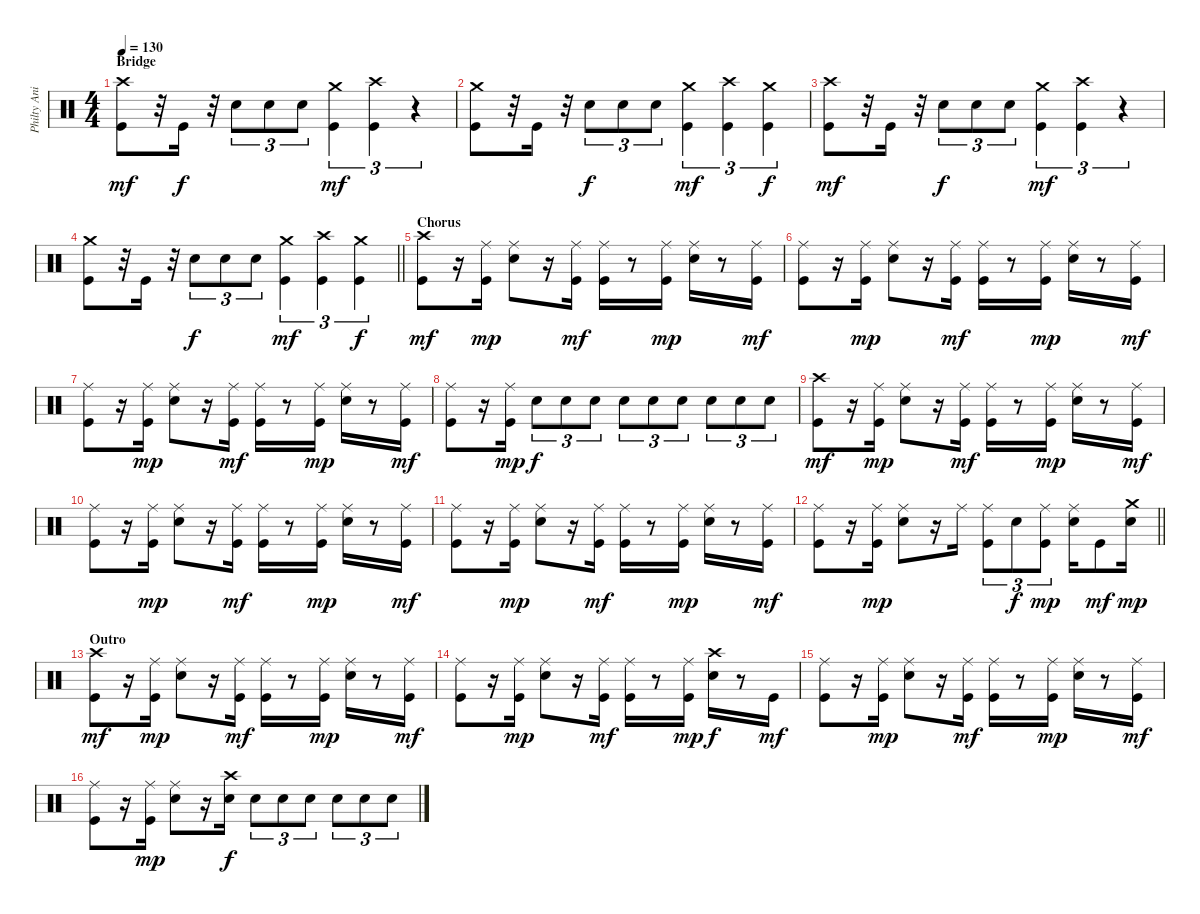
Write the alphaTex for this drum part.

\track ("Philty Animal Taylor" "Philty Ani") {instrument percussion}
\staff {score}
\articulation defaults
\ts (4 4)
\section ("" "Bridge")
\tempo 130
\clef neutral
\ks c
("Crash high (hit)" "Kick (hit)").8{dy mf} r.32 "Kick (hit)".16{dy f} r.32 "Snare (hit) 2".8{tu (3 2)} "Snare (hit) 2".8{tu (3 2)} "Snare (hit) 2".8{tu (3 2)} ("Crash medium (hit)" "Kick (hit)").4{tu (3 2) dy mf} ("Crash high (hit)" "Kick (hit)").4{tu (3 2)} r.4{tu (3 2)} |
("Crash medium (hit)" "Kick (hit)").8 r.32 "Kick (hit)".16 r.32 "Snare (hit) 2".8{tu (3 2) dy f} "Snare (hit) 2".8{tu (3 2)} "Snare (hit) 2".8{tu (3 2)} ("Crash medium (hit)" "Kick (hit)").4{tu (3 2) dy mf} ("Crash high (hit)" "Kick (hit)").4{tu (3 2)} ("Crash medium (hit)" "Kick (hit)").4{tu (3 2) dy f} |
("Crash high (hit)" "Kick (hit)").8{dy mf} r.32 "Kick (hit)".16 r.32 "Snare (hit) 2".8{tu (3 2) dy f} "Snare (hit) 2".8{tu (3 2)} "Snare (hit) 2".8{tu (3 2)} ("Crash medium (hit)" "Kick (hit)").4{tu (3 2) dy mf} ("Crash high (hit)" "Kick (hit)").4{tu (3 2)} r.4{tu (3 2)} |
\barLineRight lightlight
("Crash medium (hit)" "Kick (hit)").8 r.32 "Kick (hit)".16 r.32 "Snare (hit) 2".8{tu (3 2) dy f} "Snare (hit) 2".8{tu (3 2)} "Snare (hit) 2".8{tu (3 2)} ("Crash medium (hit)" "Kick (hit)").4{tu (3 2) dy mf} ("Crash high (hit)" "Kick (hit)").4{tu (3 2)} ("Crash medium (hit)" "Kick (hit)").4{tu (3 2) dy f} |
\section ("" "Chorus")
("Crash high (hit)" "Kick (hit)").8{dy mf} r.16 ("Ride (middle)" "Kick (hit)").16{dy mp} ("Ride (middle)" "Snare (hit) 2").8 r.16 ("Ride (middle)" "Kick (hit)").16{dy mf} ("Ride (middle)" "Kick (hit)").16 r.8 ("Ride (middle)" "Kick (hit)").16{dy mp} ("Ride (middle)" "Snare (hit) 2").16 r.8 ("Ride (middle)" "Kick (hit)").16{dy mf} |
("Ride (middle)" "Kick (hit)").8 r.16 ("Ride (middle)" "Kick (hit)").16{dy mp} ("Ride (middle)" "Snare (hit) 2").8 r.16 ("Ride (middle)" "Kick (hit)").16{dy mf} ("Ride (middle)" "Kick (hit)").16 r.8 ("Ride (middle)" "Kick (hit)").16{dy mp} ("Ride (middle)" "Snare (hit) 2").16 r.8 ("Ride (middle)" "Kick (hit)").16{dy mf} |
("Ride (middle)" "Kick (hit)").8 r.16 ("Ride (middle)" "Kick (hit)").16{dy mp} ("Ride (middle)" "Snare (hit) 2").8 r.16 ("Ride (middle)" "Kick (hit)").16{dy mf} ("Ride (middle)" "Kick (hit)").16 r.8 ("Ride (middle)" "Kick (hit)").16{dy mp} ("Ride (middle)" "Snare (hit) 2").16 r.8 ("Ride (middle)" "Kick (hit)").16{dy mf} |
("Ride (middle)" "Kick (hit)").8 r.16 ("Ride (middle)" "Kick (hit)").16{dy mp} "Snare (hit) 2".8{tu (3 2) dy f} "Snare (hit) 2".8{tu (3 2)} "Snare (hit) 2".8{tu (3 2)} "Snare (hit) 2".8{tu (3 2)} "Snare (hit) 2".8{tu (3 2)} "Snare (hit) 2".8{tu (3 2)} "Snare (hit) 2".8{tu (3 2)} "Snare (hit) 2".8{tu (3 2)} "Snare (hit) 2".8{tu (3 2)} |
("Crash high (hit)" "Kick (hit)").8{dy mf} r.16 ("Ride (middle)" "Kick (hit)").16{dy mp} ("Ride (middle)" "Snare (hit) 2").8 r.16 ("Ride (middle)" "Kick (hit)").16{dy mf} ("Ride (middle)" "Kick (hit)").16 r.8 ("Ride (middle)" "Kick (hit)").16{dy mp} ("Ride (middle)" "Snare (hit) 2").16 r.8 ("Ride (middle)" "Kick (hit)").16{dy mf} |
("Ride (middle)" "Kick (hit)").8 r.16 ("Ride (middle)" "Kick (hit)").16{dy mp} ("Ride (middle)" "Snare (hit) 2").8 r.16 ("Ride (middle)" "Kick (hit)").16{dy mf} ("Ride (middle)" "Kick (hit)").16 r.8 ("Ride (middle)" "Kick (hit)").16{dy mp} ("Ride (middle)" "Snare (hit) 2").16 r.8 ("Ride (middle)" "Kick (hit)").16{dy mf} |
("Ride (middle)" "Kick (hit)").8 r.16 ("Ride (middle)" "Kick (hit)").16{dy mp} ("Ride (middle)" "Snare (hit) 2").8 r.16 ("Ride (middle)" "Kick (hit)").16{dy mf} ("Ride (middle)" "Kick (hit)").16 r.8 ("Ride (middle)" "Kick (hit)").16{dy mp} ("Ride (middle)" "Snare (hit) 2").16 r.8 ("Ride (middle)" "Kick (hit)").16{dy mf} |
\barLineRight lightlight
("Ride (middle)" "Kick (hit)").8 r.16 ("Ride (middle)" "Kick (hit)").16{dy mp} ("Ride (middle)" "Snare (hit) 2").8 r.16 "Ride (middle)".16 ("Ride (middle)" "Kick (hit)").8{tu (3 2)} "Snare (hit) 2".8{tu (3 2) dy f} ("Ride (middle)" "Kick (hit)").8{tu (3 2) dy mp} ("Ride (middle)" "Snare (hit) 2").16 "Kick (hit)".8{dy mf} ("Crash medium (hit)" "Snare (hit) 2").16{dy mp} |
\section ("" "Outro")
("Crash high (hit)" "Kick (hit)").8{dy mf} r.16 ("Ride (middle)" "Kick (hit)").16{dy mp} ("Ride (middle)" "Snare (hit) 2").8 r.16 ("Ride (middle)" "Kick (hit)").16{dy mf} ("Ride (middle)" "Kick (hit)").16 r.8 ("Ride (middle)" "Kick (hit)").16{dy mp} ("Ride (middle)" "Snare (hit) 2").16 r.8 ("Ride (middle)" "Kick (hit)").16{dy mf} |
("Ride (middle)" "Kick (hit)").8 r.16 ("Ride (middle)" "Kick (hit)").16{dy mp} ("Ride (middle)" "Snare (hit) 2").8 r.16 ("Ride (middle)" "Kick (hit)").16{dy mf} ("Ride (middle)" "Kick (hit)").16 r.8 ("Ride (middle)" "Kick (hit)").16{dy mp} ("Crash high (hit)" "Snare (hit) 2").16{dy f} r.8 "Kick (hit)".16{dy mf} |
("Ride (middle)" "Kick (hit)").8 r.16 ("Ride (middle)" "Kick (hit)").16{dy mp} ("Ride (middle)" "Snare (hit) 2").8 r.16 ("Ride (middle)" "Kick (hit)").16{dy mf} ("Ride (middle)" "Kick (hit)").16 r.8 ("Ride (middle)" "Kick (hit)").16{dy mp} ("Ride (middle)" "Snare (hit) 2").16 r.8 ("Ride (middle)" "Kick (hit)").16{dy mf} |
("Ride (middle)" "Kick (hit)").8 r.16 ("Ride (middle)" "Kick (hit)").16{dy mp} ("Ride (middle)" "Snare (hit) 2").8 r.16 ("Crash high (hit)" "Snare (hit) 2").16{dy f} "Snare (hit) 2".8{tu (3 2)} "Snare (hit) 2".8{tu (3 2)} "Snare (hit) 2".8{tu (3 2)} "Snare (hit) 2".8{tu (3 2)} "Snare (hit) 2".8{tu (3 2)} "Snare (hit) 2".8{tu (3 2)}
